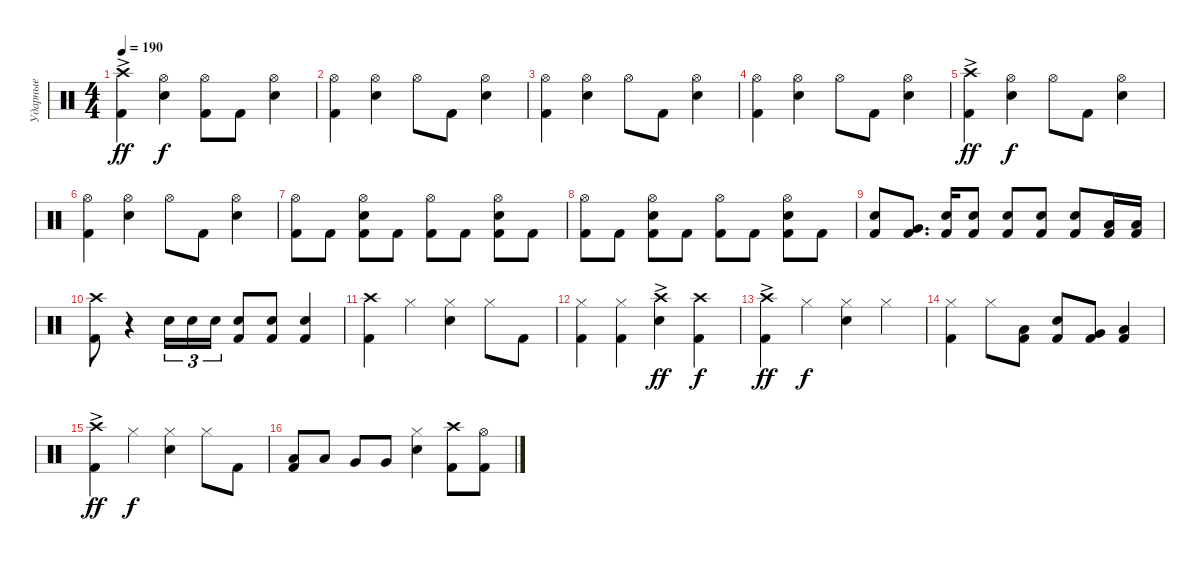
\track ("Ударные" "Ударные") {instrument percussion}
\staff {score}
\articulation defaults
\ts (4 4)
\tempo 190
\clef neutral
\ks c
("Kick (hit) 2" "Crash high (hit)"{ac}).4{dy ff} ("Snare (hit) 2" "Hi-Hat (open)").4{dy f} ("Kick (hit) 2" "Hi-Hat (open)").8 "Kick (hit) 2".8 ("Snare (hit) 2" "Hi-Hat (open)").4 |
("Kick (hit) 2" "Hi-Hat (open)").4 ("Snare (hit) 2" "Hi-Hat (open)").4 "Hi-Hat (open)".8 "Kick (hit) 2".8 ("Snare (hit) 2" "Hi-Hat (open)").4 |
("Kick (hit) 2" "Hi-Hat (open)").4 ("Snare (hit) 2" "Hi-Hat (open)").4 "Hi-Hat (open)".8 "Kick (hit) 2".8 ("Snare (hit) 2" "Hi-Hat (open)").4 |
("Kick (hit) 2" "Hi-Hat (open)").4 ("Snare (hit) 2" "Hi-Hat (open)").4 "Hi-Hat (open)".8 "Kick (hit) 2".8 ("Snare (hit) 2" "Hi-Hat (open)").4 |
("Kick (hit) 2" "Crash high (hit)"{ac}).4{dy ff} ("Snare (hit) 2" "Hi-Hat (open)").4{dy f} "Hi-Hat (open)".8 "Kick (hit) 2".8 ("Snare (hit) 2" "Hi-Hat (open)").4 |
("Kick (hit) 2" "Hi-Hat (open)").4 ("Snare (hit) 2" "Hi-Hat (open)").4 "Hi-Hat (open)".8 "Kick (hit) 2".8 ("Snare (hit) 2" "Hi-Hat (open)").4 |
("Kick (hit) 2" "Hi-Hat (open)").8 "Kick (hit) 2".8 ("Kick (hit) 2" "Snare (hit) 2" "Hi-Hat (open)").8 "Kick (hit) 2".8 ("Kick (hit) 2" "Hi-Hat (open)").8 "Kick (hit) 2".8 ("Kick (hit) 2" "Snare (hit) 2" "Hi-Hat (open)").8 "Kick (hit) 2".8 |
("Kick (hit) 2" "Hi-Hat (open)").8 "Kick (hit) 2".8 ("Kick (hit) 2" "Snare (hit) 2" "Hi-Hat (open)").8 "Kick (hit) 2".8 ("Kick (hit) 2" "Hi-Hat (open)").8 "Kick (hit) 2".8 ("Kick (hit) 2" "Snare (hit) 2" "Hi-Hat (open)").8 "Kick (hit) 2".8 |
("Kick (hit) 2" "Electric Snare (hit)").8 ("Kick (hit) 2" "Very Low Tom (hit)").8{d} ("Kick (hit) 2" "Snare (hit) 2").16 ("Kick (hit) 2" "Snare (hit) 2").8 ("Kick (hit) 2" "Snare (hit) 2").8 ("Kick (hit) 2" "Snare (hit) 2").8 ("Kick (hit) 2" "Snare (hit) 2").8 ("Kick (hit) 2" "Low Floor Tom (hit)").16 ("Kick (hit) 2" "Low Floor Tom (hit)").16 |
("Kick (hit) 2" "Crash high (hit)").8 r.4 "Electric Snare (hit)".16{tu (3 2)} "Electric Snare (hit)".16{tu (3 2)} "Snare (hit) 2".16{tu (3 2)} ("Kick (hit) 2" "Snare (hit) 2").8 ("Kick (hit) 2" "Snare (hit) 2").8 ("Kick (hit) 2" "Snare (hit) 2").4 |
("Kick (hit) 2" "Crash high (hit)").4 "Hi-Hat (closed)".4 ("Snare (hit) 2" "Hi-Hat (closed)").4 "Hi-Hat (closed)".8 "Kick (hit) 2".8 |
("Kick (hit) 2" "Hi-Hat (closed)").4 ("Kick (hit) 2" "Hi-Hat (closed)").4 ("Snare (hit) 2" "Crash high (hit)"{ac}).4{dy ff} ("Kick (hit) 2" "Crash high (hit)").4{dy f} |
("Kick (hit) 2" "Crash high (hit)"{ac}).4{dy ff} "Hi-Hat (closed)".4{dy f} ("Snare (hit) 2" "Hi-Hat (closed)").4 "Hi-Hat (closed)".4 |
("Kick (hit) 2" "Hi-Hat (closed)").4 "Hi-Hat (closed)".8 ("Kick (hit) 2" "Low Tom (hit)").8 ("Kick (hit) 2" "Snare (hit) 2").8 ("Kick (hit) 2" "Very Low Tom (hit)").8 ("Kick (hit) 2" "Low Floor Tom (hit)").4 |
("Kick (hit) 2" "Crash high (hit)"{ac}).4{dy ff} "Hi-Hat (closed)".4{dy f} ("Snare (hit) 2" "Hi-Hat (closed)").4 "Hi-Hat (closed)".8 "Kick (hit) 2".8 |
("Kick (hit) 2" "Low Tom (hit)").8 "Low Tom (hit)".8 "Very Low Tom (hit)".8 "Very Low Tom (hit)".8 ("Snare (hit) 2" "Hi-Hat (closed)").4 ("Kick (hit) 2" "Crash high (hit)").8 ("Kick (hit) 2" "Hi-Hat (open)").8
